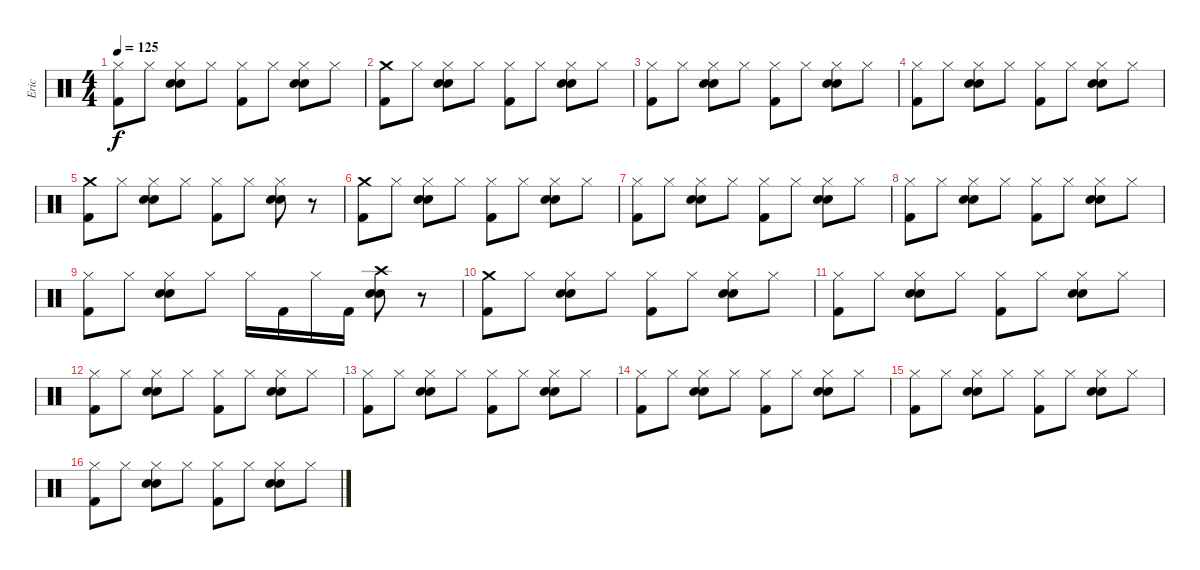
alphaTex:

\track ("Eric" "Eric") {instrument percussion}
\staff {score}
\articulation defaults
\ts (4 4)
\tempo 125
\clef neutral
\ks c
("Hi-Hat (closed)" "Kick (hit) 2").8{dy f} "Hi-Hat (closed)".8 ("Hi-Hat (closed)" "Electric Snare (hit)" "Snare (hit) 2").8 "Hi-Hat (closed)".8 ("Hi-Hat (closed)" "Kick (hit) 2").8 "Hi-Hat (closed)".8 ("Hi-Hat (closed)" "Snare (hit) 2" "Electric Snare (hit)").8 "Hi-Hat (closed)".8 |
("Crash medium (hit)" "Kick (hit) 2").8 "Hi-Hat (closed)".8 ("Hi-Hat (closed)" "Electric Snare (hit)" "Snare (hit) 2").8 "Hi-Hat (closed)".8 ("Hi-Hat (closed)" "Kick (hit) 2").8 "Hi-Hat (closed)".8 ("Hi-Hat (closed)" "Snare (hit) 2" "Electric Snare (hit)").8 "Hi-Hat (closed)".8 |
("Hi-Hat (closed)" "Kick (hit) 2").8 "Hi-Hat (closed)".8 ("Hi-Hat (closed)" "Electric Snare (hit)" "Snare (hit) 2").8 "Hi-Hat (closed)".8 ("Hi-Hat (closed)" "Kick (hit) 2").8 "Hi-Hat (closed)".8 ("Hi-Hat (closed)" "Snare (hit) 2" "Electric Snare (hit)").8 "Hi-Hat (closed)".8 |
("Hi-Hat (closed)" "Kick (hit) 2").8 "Hi-Hat (closed)".8 ("Hi-Hat (closed)" "Electric Snare (hit)" "Snare (hit) 2").8 "Hi-Hat (closed)".8 ("Hi-Hat (closed)" "Kick (hit) 2").8 "Hi-Hat (closed)".8 ("Hi-Hat (closed)" "Snare (hit) 2" "Electric Snare (hit)").8 "Hi-Hat (closed)".8 |
("Crash medium (hit)" "Kick (hit) 2").8 "Hi-Hat (closed)".8 ("Hi-Hat (closed)" "Electric Snare (hit)" "Snare (hit) 2").8 "Hi-Hat (closed)".8 ("Hi-Hat (closed)" "Kick (hit) 2").8 "Hi-Hat (closed)".8 ("Hi-Hat (closed)" "Snare (hit) 2" "Electric Snare (hit)").8 r.8 |
("Crash medium (hit)" "Kick (hit) 2").8 "Hi-Hat (closed)".8 ("Hi-Hat (closed)" "Electric Snare (hit)" "Snare (hit) 2").8 "Hi-Hat (closed)".8 ("Hi-Hat (closed)" "Kick (hit) 2").8 "Hi-Hat (closed)".8 ("Hi-Hat (closed)" "Snare (hit) 2" "Electric Snare (hit)").8 "Hi-Hat (closed)".8 |
("Hi-Hat (closed)" "Kick (hit) 2").8 "Hi-Hat (closed)".8 ("Hi-Hat (closed)" "Electric Snare (hit)" "Snare (hit) 2").8 "Hi-Hat (closed)".8 ("Hi-Hat (closed)" "Kick (hit) 2").8 "Hi-Hat (closed)".8 ("Hi-Hat (closed)" "Snare (hit) 2" "Electric Snare (hit)").8 "Hi-Hat (closed)".8 |
("Hi-Hat (closed)" "Kick (hit) 2").8 "Hi-Hat (closed)".8 ("Hi-Hat (closed)" "Electric Snare (hit)" "Snare (hit) 2").8 "Hi-Hat (closed)".8 ("Hi-Hat (closed)" "Kick (hit) 2").8 "Hi-Hat (closed)".8 ("Hi-Hat (closed)" "Snare (hit) 2" "Electric Snare (hit)").8 "Hi-Hat (closed)".8 |
("Hi-Hat (closed)" "Kick (hit) 2").8 "Hi-Hat (closed)".8 ("Hi-Hat (closed)" "Electric Snare (hit)" "Snare (hit) 2").8 "Hi-Hat (closed)".8 "Hi-Hat (closed)".16 "Kick (hit) 2".16 "Hi-Hat (closed)".16 "Kick (hit) 2".16 ("Crash high (hit)" "Snare (hit) 2" "Electric Snare (hit)").8 r.8 |
("Crash medium (hit)" "Kick (hit) 2").8 "Hi-Hat (closed)".8 ("Hi-Hat (closed)" "Electric Snare (hit)" "Snare (hit) 2").8 "Hi-Hat (closed)".8 ("Hi-Hat (closed)" "Kick (hit) 2").8 "Hi-Hat (closed)".8 ("Hi-Hat (closed)" "Snare (hit) 2" "Electric Snare (hit)").8 "Hi-Hat (closed)".8 |
("Hi-Hat (closed)" "Kick (hit) 2").8 "Hi-Hat (closed)".8 ("Hi-Hat (closed)" "Electric Snare (hit)" "Snare (hit) 2").8 "Hi-Hat (closed)".8 ("Hi-Hat (closed)" "Kick (hit) 2").8 "Hi-Hat (closed)".8 ("Hi-Hat (closed)" "Snare (hit) 2" "Electric Snare (hit)").8 "Hi-Hat (closed)".8 |
("Hi-Hat (closed)" "Kick (hit) 2").8 "Hi-Hat (closed)".8 ("Hi-Hat (closed)" "Electric Snare (hit)" "Snare (hit) 2").8 "Hi-Hat (closed)".8 ("Hi-Hat (closed)" "Kick (hit) 2").8 "Hi-Hat (closed)".8 ("Hi-Hat (closed)" "Snare (hit) 2" "Electric Snare (hit)").8 "Hi-Hat (closed)".8 |
("Hi-Hat (closed)" "Kick (hit) 2").8 "Hi-Hat (closed)".8 ("Hi-Hat (closed)" "Electric Snare (hit)" "Snare (hit) 2").8 "Hi-Hat (closed)".8 ("Hi-Hat (closed)" "Kick (hit) 2").8 "Hi-Hat (closed)".8 ("Hi-Hat (closed)" "Snare (hit) 2" "Electric Snare (hit)").8 "Hi-Hat (closed)".8 |
("Hi-Hat (closed)" "Kick (hit) 2").8 "Hi-Hat (closed)".8 ("Hi-Hat (closed)" "Electric Snare (hit)" "Snare (hit) 2").8 "Hi-Hat (closed)".8 ("Hi-Hat (closed)" "Kick (hit) 2").8 "Hi-Hat (closed)".8 ("Hi-Hat (closed)" "Snare (hit) 2" "Electric Snare (hit)").8 "Hi-Hat (closed)".8 |
("Hi-Hat (closed)" "Kick (hit) 2").8 "Hi-Hat (closed)".8 ("Hi-Hat (closed)" "Electric Snare (hit)" "Snare (hit) 2").8 "Hi-Hat (closed)".8 ("Hi-Hat (closed)" "Kick (hit) 2").8 "Hi-Hat (closed)".8 ("Hi-Hat (closed)" "Snare (hit) 2" "Electric Snare (hit)").8 "Hi-Hat (closed)".8 |
("Hi-Hat (closed)" "Kick (hit) 2").8 "Hi-Hat (closed)".8 ("Hi-Hat (closed)" "Electric Snare (hit)" "Snare (hit) 2").8 "Hi-Hat (closed)".8 ("Hi-Hat (closed)" "Kick (hit) 2").8 "Hi-Hat (closed)".8 ("Hi-Hat (closed)" "Snare (hit) 2" "Electric Snare (hit)").8 "Hi-Hat (closed)".8
